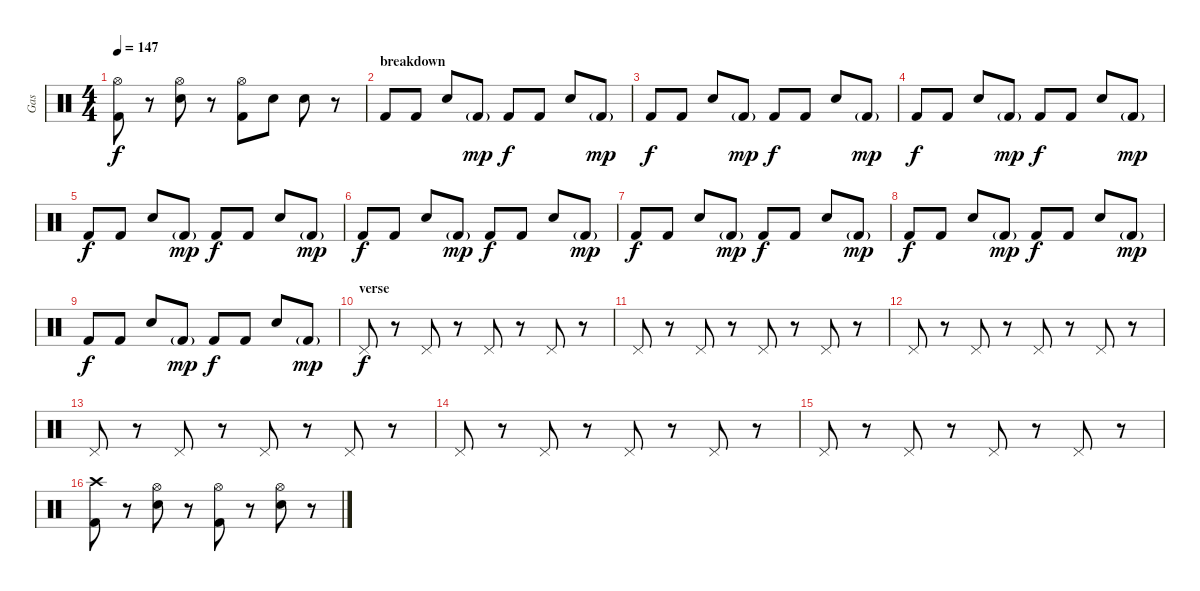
\track ("Gas" "Gas") {instrument percussion}
\staff {score}
\articulation defaults
\ts (4 4)
\tempo 147
\clef neutral
\ks c
("Hi-Hat (open)" "Kick (hit) 2").8{dy f} r.8 ("Hi-Hat (open)" "Electric Snare (hit)").8 r.8 ("Hi-Hat (open)" "Kick (hit) 2").8 "Electric Snare (hit)".8 "Electric Snare (hit)".8 r.8 |
\section ("" "breakdown")
"Kick (hit) 2".8 "Kick (hit) 2".8 "Electric Snare (hit)".8 "Kick (hit) 2"{g}.8{dy mp} "Kick (hit) 2".8{dy f} "Kick (hit) 2".8 "Electric Snare (hit)".8 "Kick (hit) 2"{g}.8{dy mp} |
"Kick (hit) 2".8{dy f} "Kick (hit) 2".8 "Electric Snare (hit)".8 "Kick (hit) 2"{g}.8{dy mp} "Kick (hit) 2".8{dy f} "Kick (hit) 2".8 "Electric Snare (hit)".8 "Kick (hit) 2"{g}.8{dy mp} |
"Kick (hit) 2".8{dy f} "Kick (hit) 2".8 "Electric Snare (hit)".8 "Kick (hit) 2"{g}.8{dy mp} "Kick (hit) 2".8{dy f} "Kick (hit) 2".8 "Electric Snare (hit)".8 "Kick (hit) 2"{g}.8{dy mp} |
"Kick (hit) 2".8{dy f} "Kick (hit) 2".8 "Electric Snare (hit)".8 "Kick (hit) 2"{g}.8{dy mp} "Kick (hit) 2".8{dy f} "Kick (hit) 2".8 "Electric Snare (hit)".8 "Kick (hit) 2"{g}.8{dy mp} |
"Kick (hit) 2".8{dy f} "Kick (hit) 2".8 "Electric Snare (hit)".8 "Kick (hit) 2"{g}.8{dy mp} "Kick (hit) 2".8{dy f} "Kick (hit) 2".8 "Electric Snare (hit)".8 "Kick (hit) 2"{g}.8{dy mp} |
"Kick (hit) 2".8{dy f} "Kick (hit) 2".8 "Electric Snare (hit)".8 "Kick (hit) 2"{g}.8{dy mp} "Kick (hit) 2".8{dy f} "Kick (hit) 2".8 "Electric Snare (hit)".8 "Kick (hit) 2"{g}.8{dy mp} |
"Kick (hit) 2".8{dy f} "Kick (hit) 2".8 "Electric Snare (hit)".8 "Kick (hit) 2"{g}.8{dy mp} "Kick (hit) 2".8{dy f} "Kick (hit) 2".8 "Electric Snare (hit)".8 "Kick (hit) 2"{g}.8{dy mp} |
"Kick (hit) 2".8{dy f} "Kick (hit) 2".8 "Electric Snare (hit)".8 "Kick (hit) 2"{g}.8{dy mp} "Kick (hit) 2".8{dy f} "Kick (hit) 2".8 "Electric Snare (hit)".8 "Kick (hit) 2"{g}.8{dy mp} |
\section ("" "verse")
"Pedal Hi-Hat (hit)".8{dy f} r.8 "Pedal Hi-Hat (hit)".8 r.8 "Pedal Hi-Hat (hit)".8 r.8 "Pedal Hi-Hat (hit)".8 r.8 |
"Pedal Hi-Hat (hit)".8 r.8 "Pedal Hi-Hat (hit)".8 r.8 "Pedal Hi-Hat (hit)".8 r.8 "Pedal Hi-Hat (hit)".8 r.8 |
"Pedal Hi-Hat (hit)".8 r.8 "Pedal Hi-Hat (hit)".8 r.8 "Pedal Hi-Hat (hit)".8 r.8 "Pedal Hi-Hat (hit)".8 r.8 |
"Pedal Hi-Hat (hit)".8 r.8 "Pedal Hi-Hat (hit)".8 r.8 "Pedal Hi-Hat (hit)".8 r.8 "Pedal Hi-Hat (hit)".8 r.8 |
"Pedal Hi-Hat (hit)".8 r.8 "Pedal Hi-Hat (hit)".8 r.8 "Pedal Hi-Hat (hit)".8 r.8 "Pedal Hi-Hat (hit)".8 r.8 |
"Pedal Hi-Hat (hit)".8 r.8 "Pedal Hi-Hat (hit)".8 r.8 "Pedal Hi-Hat (hit)".8 r.8 "Pedal Hi-Hat (hit)".8 r.8 |
("Crash high (hit)" "Kick (hit) 2").8 r.8 ("Hi-Hat (open)" "Electric Snare (hit)").8 r.8 ("Hi-Hat (open)" "Kick (hit) 2").8 r.8 ("Hi-Hat (open)" "Electric Snare (hit)").8 r.8
